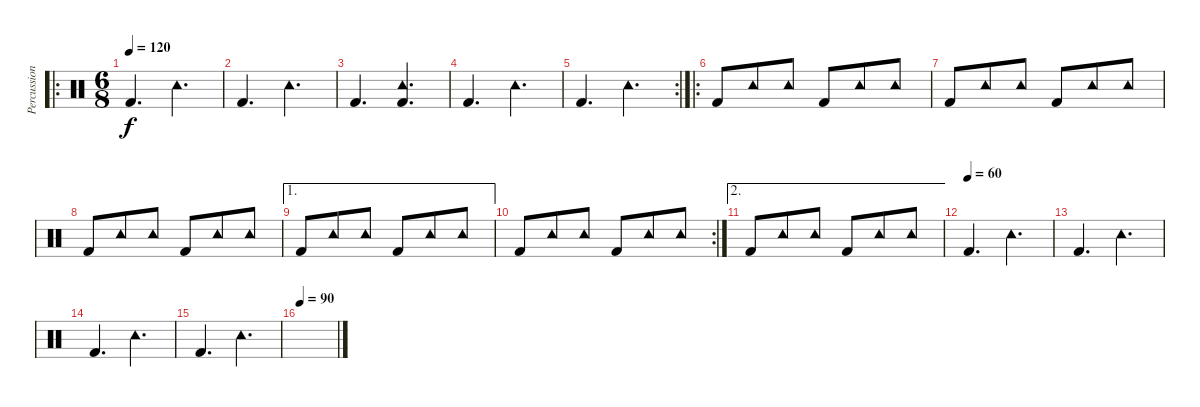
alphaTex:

\track ("Percussion" "Percussion") {instrument percussion}
\staff {score}
\articulation defaults
\ro
\ts (6 8)
\tempo 120
\clef neutral
\ks c "Kick (hit) 2".4{d dy f} "Tambourine (hit)".4{d}
|
"Kick (hit) 2".4{d} "Tambourine (hit)".4{d} |
"Kick (hit) 2".4{d} ("Tambourine (hit)" "Kick (hit) 2").4{d} |
"Kick (hit) 2".4{d} "Tambourine (hit)".4{d} |
\rc 2 "Kick (hit) 2".4{d} "Tambourine (hit)".4{d}
|
\ro "Kick (hit) 2".8 "Tambourine (hit)".8 "Tambourine (hit)".8 "Kick (hit) 2".8 "Tambourine (hit)".8 "Tambourine (hit)".8
|
"Kick (hit) 2".8 "Tambourine (hit)".8 "Tambourine (hit)".8 "Kick (hit) 2".8 "Tambourine (hit)".8 "Tambourine (hit)".8 |
"Kick (hit) 2".8 "Tambourine (hit)".8 "Tambourine (hit)".8 "Kick (hit) 2".8 "Tambourine (hit)".8 "Tambourine (hit)".8 |
\ae 1 "Kick (hit) 2".8 "Tambourine (hit)".8 "Tambourine (hit)".8 "Kick (hit) 2".8 "Tambourine (hit)".8 "Tambourine (hit)".8
|
\rc 2 "Kick (hit) 2".8 "Tambourine (hit)".8 "Tambourine (hit)".8 "Kick (hit) 2".8 "Tambourine (hit)".8 "Tambourine (hit)".8
|
\ae 2 "Kick (hit) 2".8 "Tambourine (hit)".8 "Tambourine (hit)".8 "Kick (hit) 2".8 "Tambourine (hit)".8 "Tambourine (hit)".8
|
\tempo (60)
"Kick (hit) 2".4{d} "Tambourine (hit)".4{d} |
"Kick (hit) 2".4{d} "Tambourine (hit)".4{d} |
"Kick (hit) 2".4{d} "Tambourine (hit)".4{d} |
"Kick (hit) 2".4{d} "Tambourine (hit)".4{d} |
\tempo 90
